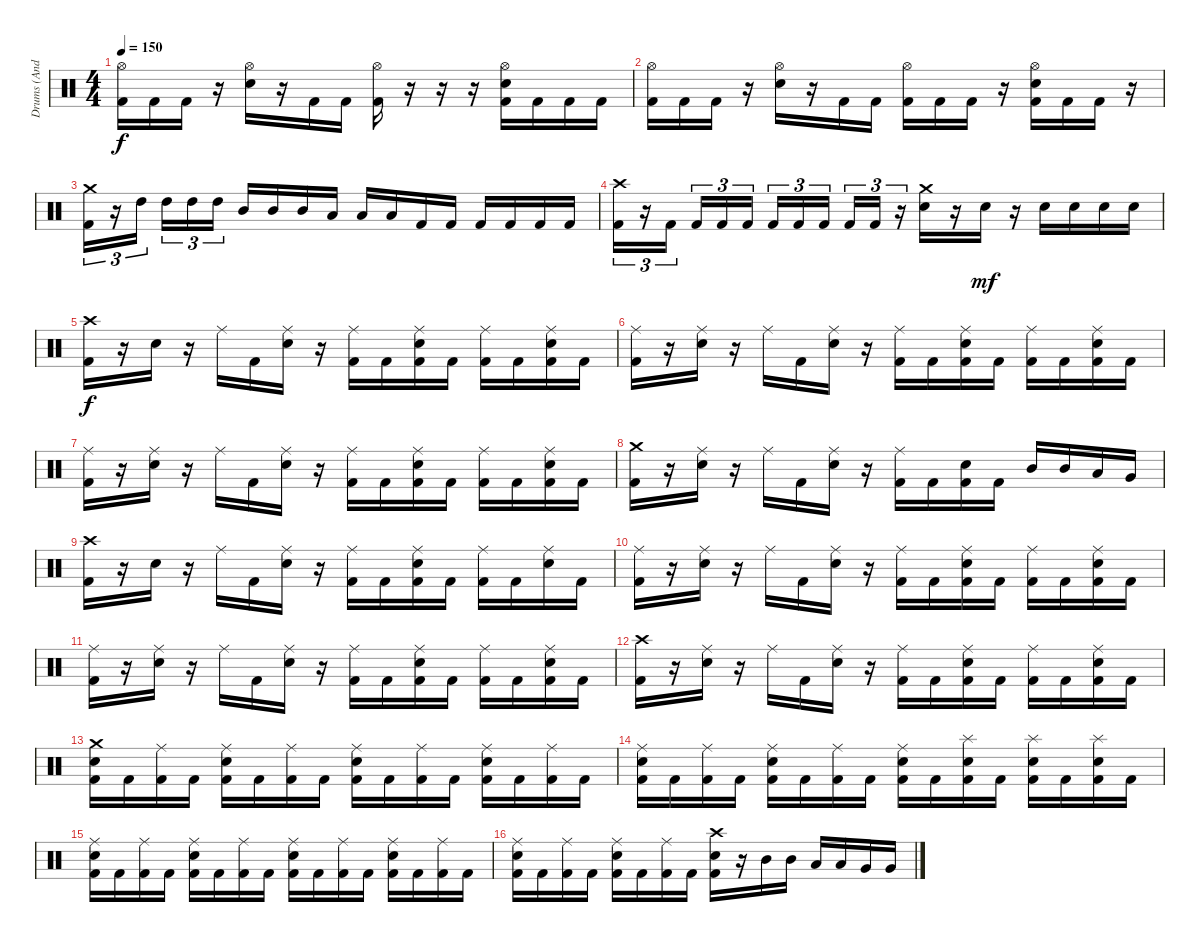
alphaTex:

\track ("Drums (Andy C)" "Drums (And") {instrument percussion}
\staff {score}
\articulation defaults
\ts (4 4)
\tempo 150
\clef neutral
\ks c
("Hi-Hat (open)" "Kick (hit) 2").16{dy f} "Kick (hit) 2".16 "Kick (hit) 2".16 r.16 ("Hi-Hat (open)" "Electric Snare (hit)").16 r.16 "Kick (hit) 2".16 "Kick (hit) 2".16 ("Hi-Hat (open)" "Kick (hit) 2").16 r.16 r.16 r.16 ("Hi-Hat (open)" "Kick (hit) 2" "Electric Snare (hit)").16 "Kick (hit) 2".16 "Kick (hit) 2".16 "Kick (hit) 2".16 |
("Hi-Hat (open)" "Kick (hit) 2").16 "Kick (hit) 2".16 "Kick (hit) 2".16 r.16 ("Hi-Hat (open)" "Electric Snare (hit)").16 r.16 "Kick (hit) 2".16 "Kick (hit) 2".16 ("Hi-Hat (open)" "Kick (hit) 2").16 "Kick (hit) 2".16 "Kick (hit) 2".16 r.16 ("Hi-Hat (open)" "Kick (hit) 2" "Electric Snare (hit)").16 "Kick (hit) 2".16 "Kick (hit) 2".16 r.16 |
("Crash medium (hit)" "Kick (hit) 2").16{tu (3 2)} r.16{tu (3 2)} "High Tom (hit)".16{tu (3 2)} "High Tom (hit)".16{tu (3 2)} "High Tom (hit)".16{tu (3 2)} "High Tom (hit)".16{tu (3 2)} "Mid Tom (hit)".16 "Mid Tom (hit)".16 "Mid Tom (hit)".16 "Low Tom (hit)".16 "Low Tom (hit)".16 "Low Tom (hit)".16 "Kick (hit) 2".16 "Kick (hit) 2".16 "Kick (hit) 2".16 "Kick (hit) 2".16 "Kick (hit) 2".16 "Kick (hit) 2".16 |
("Crash high (hit)" "Kick (hit) 2").16{tu (3 2)} r.16{tu (3 2)} "Kick (hit) 2".16{tu (3 2)} "Kick (hit) 2".16{tu (3 2)} "Kick (hit) 2".16{tu (3 2)} "Kick (hit) 2".16{tu (3 2)} "Kick (hit) 2".16{tu (3 2)} "Kick (hit) 2".16{tu (3 2)} "Kick (hit) 2".16{tu (3 2)} "Kick (hit) 2".16{tu (3 2)} "Kick (hit) 2".16{tu (3 2)} r.16{tu (3 2)} ("Crash medium (hit)" "Electric Snare (hit)").16 r.16 "Electric Snare (hit)".16{dy mf} r.16 "Electric Snare (hit)".16 "Electric Snare (hit)".16 "Electric Snare (hit)".16 "Electric Snare (hit)".16 |
("Crash high (hit)" "Kick (hit) 2").16{dy f} r.16 "Electric Snare (hit)".16 r.16 "Ride (middle)".16 "Kick (hit) 2".16 ("Ride (middle)" "Electric Snare (hit)").16 r.16 ("Ride (middle)" "Kick (hit) 2").16 "Kick (hit) 2".16 ("Ride (middle)" "Kick (hit) 2" "Electric Snare (hit)").16 "Kick (hit) 2".16 ("Ride (middle)" "Kick (hit) 2").16 "Kick (hit) 2".16 ("Ride (middle)" "Kick (hit) 2" "Electric Snare (hit)").16 "Kick (hit) 2".16 |
("Ride (middle)" "Kick (hit) 2").16 r.16 ("Ride (middle)" "Electric Snare (hit)").16 r.16 "Ride (middle)".16 "Kick (hit) 2".16 ("Ride (middle)" "Electric Snare (hit)").16 r.16 ("Ride (middle)" "Kick (hit) 2").16 "Kick (hit) 2".16 ("Ride (middle)" "Kick (hit) 2" "Electric Snare (hit)").16 "Kick (hit) 2".16 ("Ride (middle)" "Kick (hit) 2").16 "Kick (hit) 2".16 ("Ride (middle)" "Kick (hit) 2" "Electric Snare (hit)").16 "Kick (hit) 2".16 |
("Ride (middle)" "Kick (hit) 2").16 r.16 ("Ride (middle)" "Electric Snare (hit)").16 r.16 "Ride (middle)".16 "Kick (hit) 2".16 ("Ride (middle)" "Electric Snare (hit)").16 r.16 ("Ride (middle)" "Kick (hit) 2").16 "Kick (hit) 2".16 ("Ride (middle)" "Kick (hit) 2" "Electric Snare (hit)").16 "Kick (hit) 2".16 ("Ride (middle)" "Kick (hit) 2").16 "Kick (hit) 2".16 ("Ride (middle)" "Kick (hit) 2" "Electric Snare (hit)").16 "Kick (hit) 2".16 |
("Crash medium (hit)" "Kick (hit) 2").16 r.16 ("Ride (middle)" "Electric Snare (hit)").16 r.16 "Ride (middle)".16 "Kick (hit) 2".16 ("Ride (middle)" "Electric Snare (hit)").16 r.16 ("Ride (middle)" "Kick (hit) 2").16 "Kick (hit) 2".16 ("Kick (hit) 2" "Electric Snare (hit)").16 "Kick (hit) 2".16 "Mid Tom (hit)".16 "Mid Tom (hit)".16 "Low Tom (hit)".16 "Very Low Tom (hit)".16 |
("Crash high (hit)" "Kick (hit) 2").16 r.16 "Electric Snare (hit)".16 r.16 "Ride (middle)".16 "Kick (hit) 2".16 ("Ride (middle)" "Electric Snare (hit)").16 r.16 ("Ride (middle)" "Kick (hit) 2").16 "Kick (hit) 2".16 ("Ride (middle)" "Kick (hit) 2" "Electric Snare (hit)").16 "Kick (hit) 2".16 ("Ride (middle)" "Kick (hit) 2").16 "Kick (hit) 2".16 ("Ride (middle)" "Electric Snare (hit)").16 "Kick (hit) 2".16 |
("Ride (middle)" "Kick (hit) 2").16 r.16 ("Ride (middle)" "Electric Snare (hit)").16 r.16 "Ride (middle)".16 "Kick (hit) 2".16 ("Ride (middle)" "Electric Snare (hit)").16 r.16 ("Ride (middle)" "Kick (hit) 2").16 "Kick (hit) 2".16 ("Ride (middle)" "Kick (hit) 2" "Electric Snare (hit)").16 "Kick (hit) 2".16 ("Ride (middle)" "Kick (hit) 2").16 "Kick (hit) 2".16 ("Ride (middle)" "Kick (hit) 2" "Electric Snare (hit)").16 "Kick (hit) 2".16 |
("Ride (middle)" "Kick (hit) 2").16 r.16 ("Ride (middle)" "Electric Snare (hit)").16 r.16 "Ride (middle)".16 "Kick (hit) 2".16 ("Ride (middle)" "Electric Snare (hit)").16 r.16 ("Ride (middle)" "Kick (hit) 2").16 "Kick (hit) 2".16 ("Ride (middle)" "Kick (hit) 2" "Electric Snare (hit)").16 "Kick (hit) 2".16 ("Ride (middle)" "Kick (hit) 2").16 "Kick (hit) 2".16 ("Ride (middle)" "Kick (hit) 2" "Electric Snare (hit)").16 "Kick (hit) 2".16 |
("Crash high (hit)" "Kick (hit) 2").16 r.16 ("Ride (middle)" "Electric Snare (hit)").16 r.16 "Ride (middle)".16 "Kick (hit) 2".16 ("Ride (middle)" "Electric Snare (hit)").16 r.16 ("Ride (middle)" "Kick (hit) 2").16 "Kick (hit) 2".16 ("Ride (middle)" "Kick (hit) 2" "Electric Snare (hit)").16 "Kick (hit) 2".16 ("Ride (middle)" "Kick (hit) 2").16 "Kick (hit) 2".16 ("Ride (middle)" "Kick (hit) 2" "Electric Snare (hit)").16 "Kick (hit) 2".16 |
("Crash medium (hit)" "Kick (hit) 2" "Electric Snare (hit)").16 "Kick (hit) 2".16 ("Ride (middle)" "Kick (hit) 2").16 "Kick (hit) 2".16 ("Ride (middle)" "Kick (hit) 2" "Electric Snare (hit)").16 "Kick (hit) 2".16 ("Ride (middle)" "Kick (hit) 2").16 "Kick (hit) 2".16 ("Ride (middle)" "Kick (hit) 2" "Electric Snare (hit)").16 "Kick (hit) 2".16 ("Ride (middle)" "Kick (hit) 2").16 "Kick (hit) 2".16 ("Ride (middle)" "Kick (hit) 2" "Electric Snare (hit)").16 "Kick (hit) 2".16 ("Ride (middle)" "Kick (hit) 2").16 "Kick (hit) 2".16 |
("Ride (middle)" "Kick (hit) 2" "Electric Snare (hit)").16 "Kick (hit) 2".16 ("Ride (middle)" "Kick (hit) 2").16 "Kick (hit) 2".16 ("Ride (middle)" "Kick (hit) 2" "Electric Snare (hit)").16 "Kick (hit) 2".16 ("Ride (middle)" "Kick (hit) 2").16 "Kick (hit) 2".16 ("Ride (middle)" "Kick (hit) 2" "Electric Snare (hit)").16 "Kick (hit) 2".16 ("Splash (hit)" "Kick (hit) 2" "Electric Snare (hit)").16 "Kick (hit) 2".16 ("Splash (hit)" "Kick (hit) 2" "Electric Snare (hit)").16 "Kick (hit) 2".16 ("Splash (hit)" "Kick (hit) 2" "Electric Snare (hit)").16 "Kick (hit) 2".16 |
("Ride (middle)" "Kick (hit) 2" "Electric Snare (hit)").16 "Kick (hit) 2".16 ("Ride (middle)" "Kick (hit) 2").16 "Kick (hit) 2".16 ("Ride (middle)" "Kick (hit) 2" "Electric Snare (hit)").16 "Kick (hit) 2".16 ("Ride (middle)" "Kick (hit) 2").16 "Kick (hit) 2".16 ("Ride (middle)" "Kick (hit) 2" "Electric Snare (hit)").16 "Kick (hit) 2".16 ("Ride (middle)" "Kick (hit) 2").16 "Kick (hit) 2".16 ("Ride (middle)" "Kick (hit) 2" "Electric Snare (hit)").16 "Kick (hit) 2".16 ("Ride (middle)" "Kick (hit) 2").16 "Kick (hit) 2".16 |
("Ride (middle)" "Kick (hit) 2" "Electric Snare (hit)").16 "Kick (hit) 2".16 ("Ride (middle)" "Kick (hit) 2").16 "Kick (hit) 2".16 ("Ride (middle)" "Kick (hit) 2" "Electric Snare (hit)").16 "Kick (hit) 2".16 ("Ride (middle)" "Kick (hit) 2").16 "Kick (hit) 2".16 ("Crash high (hit)" "Kick (hit) 2" "Electric Snare (hit)").16 r.16 "Mid Tom (hit)".16 "Mid Tom (hit)".16 "Low Tom (hit)".16 "Low Tom (hit)".16 "Very Low Tom (hit)".16 "Very Low Tom (hit)".16
